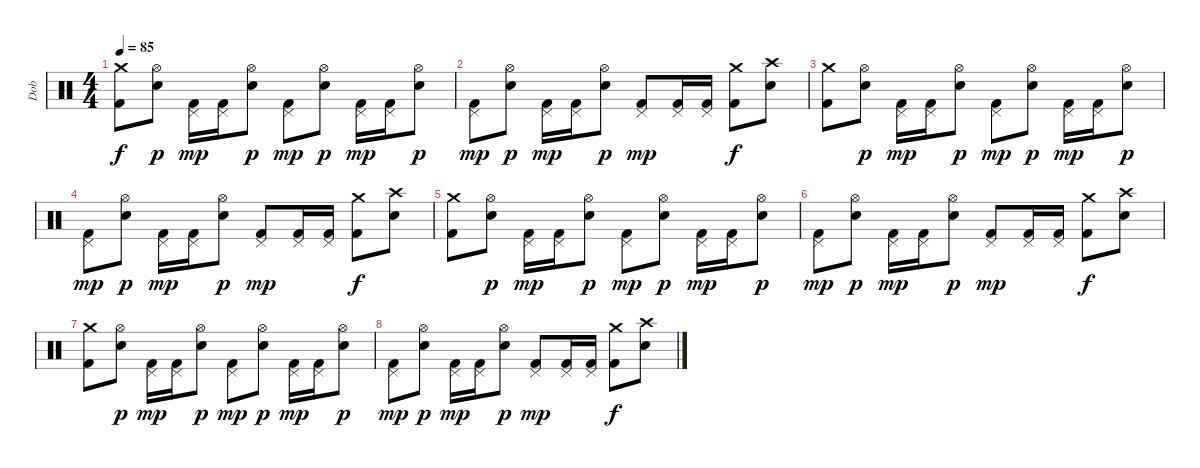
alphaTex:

\track ("Dob" "Dob") {instrument percussion}
\staff {score}
\articulation defaults
\ts (4 4)
\tempo 85
\clef neutral
\ks c
("Kick (hit) 2" "Crash medium (hit)").8{dy f} ("Snare (hit) 2" "Hi-Hat (open)").8{dy p} ("Kick (hit) 2" "Pedal Hi-Hat (hit)").16{dy mp} ("Kick (hit) 2" "Pedal Hi-Hat (hit)").16 ("Snare (hit) 2" "Hi-Hat (open)").8{dy p} ("Kick (hit) 2" "Pedal Hi-Hat (hit)").8{dy mp} ("Snare (hit) 2" "Hi-Hat (open)").8{dy p} ("Kick (hit) 2" "Pedal Hi-Hat (hit)").16{dy mp} ("Kick (hit) 2" "Pedal Hi-Hat (hit)").16 ("Snare (hit) 2" "Hi-Hat (open)").8{dy p} |
("Kick (hit) 2" "Pedal Hi-Hat (hit)").8{dy mp} ("Snare (hit) 2" "Hi-Hat (open)").8{dy p} ("Kick (hit) 2" "Pedal Hi-Hat (hit)").16{dy mp} ("Kick (hit) 2" "Pedal Hi-Hat (hit)").16 ("Snare (hit) 2" "Hi-Hat (open)").8{dy p} ("Kick (hit) 2" "Pedal Hi-Hat (hit)").8{dy mp} ("Kick (hit) 2" "Pedal Hi-Hat (hit)").16 ("Kick (hit) 2" "Pedal Hi-Hat (hit)").16 ("Kick (hit) 2" "Crash medium (hit)").8{dy f} ("Snare (hit) 2" "Crash high (hit)").8 |
("Kick (hit) 2" "Crash medium (hit)").8 ("Snare (hit) 2" "Hi-Hat (open)").8{dy p} ("Kick (hit) 2" "Pedal Hi-Hat (hit)").16{dy mp} ("Kick (hit) 2" "Pedal Hi-Hat (hit)").16 ("Snare (hit) 2" "Hi-Hat (open)").8{dy p} ("Kick (hit) 2" "Pedal Hi-Hat (hit)").8{dy mp} ("Snare (hit) 2" "Hi-Hat (open)").8{dy p} ("Kick (hit) 2" "Pedal Hi-Hat (hit)").16{dy mp} ("Kick (hit) 2" "Pedal Hi-Hat (hit)").16 ("Snare (hit) 2" "Hi-Hat (open)").8{dy p} |
("Kick (hit) 2" "Pedal Hi-Hat (hit)").8{dy mp} ("Snare (hit) 2" "Hi-Hat (open)").8{dy p} ("Kick (hit) 2" "Pedal Hi-Hat (hit)").16{dy mp} ("Kick (hit) 2" "Pedal Hi-Hat (hit)").16 ("Snare (hit) 2" "Hi-Hat (open)").8{dy p} ("Kick (hit) 2" "Pedal Hi-Hat (hit)").8{dy mp} ("Kick (hit) 2" "Pedal Hi-Hat (hit)").16 ("Kick (hit) 2" "Pedal Hi-Hat (hit)").16 ("Kick (hit) 2" "Crash medium (hit)").8{dy f} ("Snare (hit) 2" "Crash high (hit)").8 |
("Kick (hit) 2" "Crash medium (hit)").8 ("Snare (hit) 2" "Hi-Hat (open)").8{dy p} ("Kick (hit) 2" "Pedal Hi-Hat (hit)").16{dy mp} ("Kick (hit) 2" "Pedal Hi-Hat (hit)").16 ("Snare (hit) 2" "Hi-Hat (open)").8{dy p} ("Kick (hit) 2" "Pedal Hi-Hat (hit)").8{dy mp} ("Snare (hit) 2" "Hi-Hat (open)").8{dy p} ("Kick (hit) 2" "Pedal Hi-Hat (hit)").16{dy mp} ("Kick (hit) 2" "Pedal Hi-Hat (hit)").16 ("Snare (hit) 2" "Hi-Hat (open)").8{dy p} |
("Kick (hit) 2" "Pedal Hi-Hat (hit)").8{dy mp} ("Snare (hit) 2" "Hi-Hat (open)").8{dy p} ("Kick (hit) 2" "Pedal Hi-Hat (hit)").16{dy mp} ("Kick (hit) 2" "Pedal Hi-Hat (hit)").16 ("Snare (hit) 2" "Hi-Hat (open)").8{dy p} ("Kick (hit) 2" "Pedal Hi-Hat (hit)").8{dy mp} ("Kick (hit) 2" "Pedal Hi-Hat (hit)").16 ("Kick (hit) 2" "Pedal Hi-Hat (hit)").16 ("Kick (hit) 2" "Crash medium (hit)").8{dy f} ("Snare (hit) 2" "Crash high (hit)").8 |
("Kick (hit) 2" "Crash medium (hit)").8 ("Snare (hit) 2" "Hi-Hat (open)").8{dy p} ("Kick (hit) 2" "Pedal Hi-Hat (hit)").16{dy mp} ("Kick (hit) 2" "Pedal Hi-Hat (hit)").16 ("Snare (hit) 2" "Hi-Hat (open)").8{dy p} ("Kick (hit) 2" "Pedal Hi-Hat (hit)").8{dy mp} ("Snare (hit) 2" "Hi-Hat (open)").8{dy p} ("Kick (hit) 2" "Pedal Hi-Hat (hit)").16{dy mp} ("Kick (hit) 2" "Pedal Hi-Hat (hit)").16 ("Snare (hit) 2" "Hi-Hat (open)").8{dy p} |
("Kick (hit) 2" "Pedal Hi-Hat (hit)").8{dy mp} ("Snare (hit) 2" "Hi-Hat (open)").8{dy p} ("Kick (hit) 2" "Pedal Hi-Hat (hit)").16{dy mp} ("Kick (hit) 2" "Pedal Hi-Hat (hit)").16 ("Snare (hit) 2" "Hi-Hat (open)").8{dy p} ("Kick (hit) 2" "Pedal Hi-Hat (hit)").8{dy mp} ("Kick (hit) 2" "Pedal Hi-Hat (hit)").16 ("Kick (hit) 2" "Pedal Hi-Hat (hit)").16 ("Kick (hit) 2" "Crash medium (hit)").8{dy f} ("Snare (hit) 2" "Crash high (hit)").8
